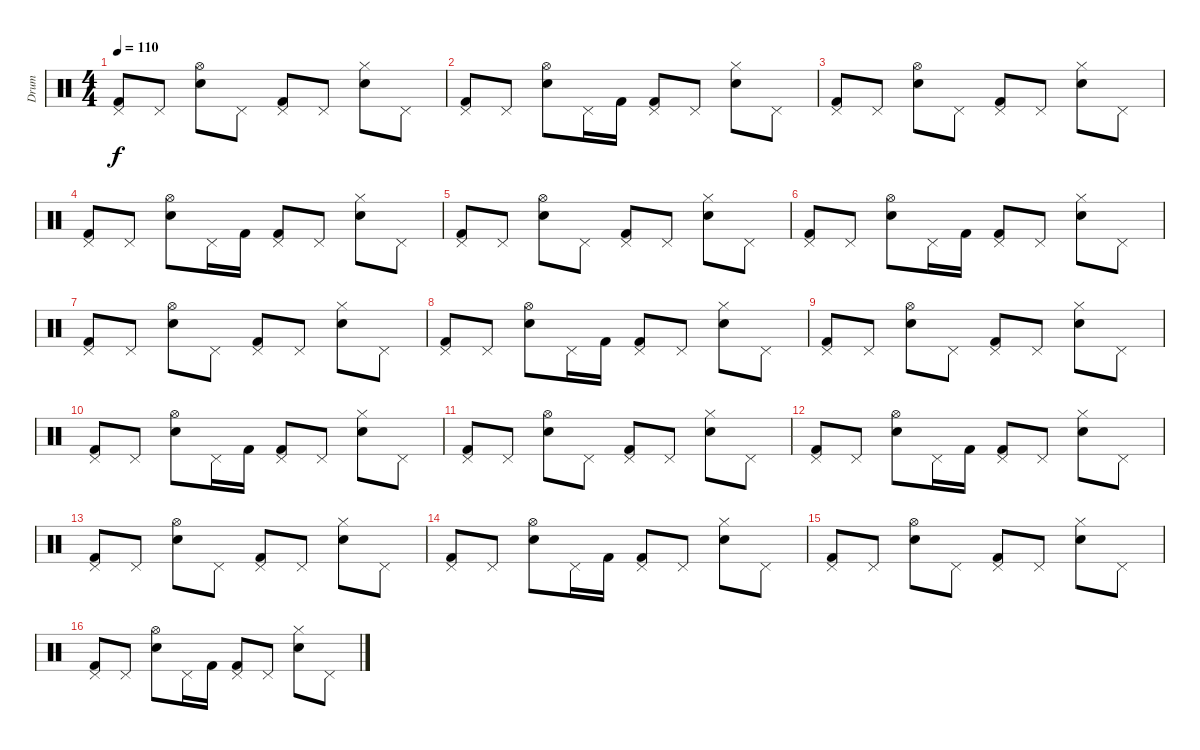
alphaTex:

\track ("Drum" "Drum") {instrument percussion}
\staff {score}
\articulation defaults
\ts (4 4)
\tempo 110
\clef neutral
\ks c
("Pedal Hi-Hat (hit)" "Kick (hit) 2").8{dy f} "Pedal Hi-Hat (hit)".8 ("Hi-Hat (open)" "Snare (hit) 2").8 "Pedal Hi-Hat (hit)".8 ("Pedal Hi-Hat (hit)" "Kick (hit) 2").8 "Pedal Hi-Hat (hit)".8 ("Hi-Hat (closed)" "Snare (hit) 2").8 "Pedal Hi-Hat (hit)".8 |
("Pedal Hi-Hat (hit)" "Kick (hit) 2").8 "Pedal Hi-Hat (hit)".8 ("Hi-Hat (open)" "Snare (hit) 2").8 "Pedal Hi-Hat (hit)".16 "Kick (hit) 2".16 ("Pedal Hi-Hat (hit)" "Kick (hit) 2").8 "Pedal Hi-Hat (hit)".8 ("Hi-Hat (closed)" "Snare (hit) 2").8 "Pedal Hi-Hat (hit)".8 |
("Pedal Hi-Hat (hit)" "Kick (hit) 2").8 "Pedal Hi-Hat (hit)".8 ("Hi-Hat (open)" "Snare (hit) 2").8 "Pedal Hi-Hat (hit)".8 ("Pedal Hi-Hat (hit)" "Kick (hit) 2").8 "Pedal Hi-Hat (hit)".8 ("Hi-Hat (closed)" "Snare (hit) 2").8 "Pedal Hi-Hat (hit)".8 |
("Pedal Hi-Hat (hit)" "Kick (hit) 2").8 "Pedal Hi-Hat (hit)".8 ("Hi-Hat (open)" "Snare (hit) 2").8 "Pedal Hi-Hat (hit)".16 "Kick (hit) 2".16 ("Pedal Hi-Hat (hit)" "Kick (hit) 2").8 "Pedal Hi-Hat (hit)".8 ("Hi-Hat (closed)" "Snare (hit) 2").8 "Pedal Hi-Hat (hit)".8 |
("Pedal Hi-Hat (hit)" "Kick (hit) 2").8 "Pedal Hi-Hat (hit)".8 ("Hi-Hat (open)" "Snare (hit) 2").8 "Pedal Hi-Hat (hit)".8 ("Pedal Hi-Hat (hit)" "Kick (hit) 2").8 "Pedal Hi-Hat (hit)".8 ("Hi-Hat (closed)" "Snare (hit) 2").8 "Pedal Hi-Hat (hit)".8 |
("Pedal Hi-Hat (hit)" "Kick (hit) 2").8 "Pedal Hi-Hat (hit)".8 ("Hi-Hat (open)" "Snare (hit) 2").8 "Pedal Hi-Hat (hit)".16 "Kick (hit) 2".16 ("Pedal Hi-Hat (hit)" "Kick (hit) 2").8 "Pedal Hi-Hat (hit)".8 ("Hi-Hat (closed)" "Snare (hit) 2").8 "Pedal Hi-Hat (hit)".8 |
("Pedal Hi-Hat (hit)" "Kick (hit) 2").8 "Pedal Hi-Hat (hit)".8 ("Hi-Hat (open)" "Snare (hit) 2").8 "Pedal Hi-Hat (hit)".8 ("Pedal Hi-Hat (hit)" "Kick (hit) 2").8 "Pedal Hi-Hat (hit)".8 ("Hi-Hat (closed)" "Snare (hit) 2").8 "Pedal Hi-Hat (hit)".8 |
("Pedal Hi-Hat (hit)" "Kick (hit) 2").8 "Pedal Hi-Hat (hit)".8 ("Hi-Hat (open)" "Snare (hit) 2").8 "Pedal Hi-Hat (hit)".16 "Kick (hit) 2".16 ("Pedal Hi-Hat (hit)" "Kick (hit) 2").8 "Pedal Hi-Hat (hit)".8 ("Hi-Hat (closed)" "Snare (hit) 2").8 "Pedal Hi-Hat (hit)".8 |
("Pedal Hi-Hat (hit)" "Kick (hit) 2").8 "Pedal Hi-Hat (hit)".8 ("Hi-Hat (open)" "Snare (hit) 2").8 "Pedal Hi-Hat (hit)".8 ("Pedal Hi-Hat (hit)" "Kick (hit) 2").8 "Pedal Hi-Hat (hit)".8 ("Hi-Hat (closed)" "Snare (hit) 2").8 "Pedal Hi-Hat (hit)".8 |
("Pedal Hi-Hat (hit)" "Kick (hit) 2").8 "Pedal Hi-Hat (hit)".8 ("Hi-Hat (open)" "Snare (hit) 2").8 "Pedal Hi-Hat (hit)".16 "Kick (hit) 2".16 ("Pedal Hi-Hat (hit)" "Kick (hit) 2").8 "Pedal Hi-Hat (hit)".8 ("Hi-Hat (closed)" "Snare (hit) 2").8 "Pedal Hi-Hat (hit)".8 |
("Pedal Hi-Hat (hit)" "Kick (hit) 2").8 "Pedal Hi-Hat (hit)".8 ("Hi-Hat (open)" "Snare (hit) 2").8 "Pedal Hi-Hat (hit)".8 ("Pedal Hi-Hat (hit)" "Kick (hit) 2").8 "Pedal Hi-Hat (hit)".8 ("Hi-Hat (closed)" "Snare (hit) 2").8 "Pedal Hi-Hat (hit)".8 |
("Pedal Hi-Hat (hit)" "Kick (hit) 2").8 "Pedal Hi-Hat (hit)".8 ("Hi-Hat (open)" "Snare (hit) 2").8 "Pedal Hi-Hat (hit)".16 "Kick (hit) 2".16 ("Pedal Hi-Hat (hit)" "Kick (hit) 2").8 "Pedal Hi-Hat (hit)".8 ("Hi-Hat (closed)" "Snare (hit) 2").8 "Pedal Hi-Hat (hit)".8 |
("Pedal Hi-Hat (hit)" "Kick (hit) 2").8 "Pedal Hi-Hat (hit)".8 ("Hi-Hat (open)" "Snare (hit) 2").8 "Pedal Hi-Hat (hit)".8 ("Pedal Hi-Hat (hit)" "Kick (hit) 2").8 "Pedal Hi-Hat (hit)".8 ("Hi-Hat (closed)" "Snare (hit) 2").8 "Pedal Hi-Hat (hit)".8 |
("Pedal Hi-Hat (hit)" "Kick (hit) 2").8 "Pedal Hi-Hat (hit)".8 ("Hi-Hat (open)" "Snare (hit) 2").8 "Pedal Hi-Hat (hit)".16 "Kick (hit) 2".16 ("Pedal Hi-Hat (hit)" "Kick (hit) 2").8 "Pedal Hi-Hat (hit)".8 ("Hi-Hat (closed)" "Snare (hit) 2").8 "Pedal Hi-Hat (hit)".8 |
("Pedal Hi-Hat (hit)" "Kick (hit) 2").8 "Pedal Hi-Hat (hit)".8 ("Hi-Hat (open)" "Snare (hit) 2").8 "Pedal Hi-Hat (hit)".8 ("Pedal Hi-Hat (hit)" "Kick (hit) 2").8 "Pedal Hi-Hat (hit)".8 ("Hi-Hat (closed)" "Snare (hit) 2").8 "Pedal Hi-Hat (hit)".8 |
("Pedal Hi-Hat (hit)" "Kick (hit) 2").8 "Pedal Hi-Hat (hit)".8 ("Hi-Hat (open)" "Snare (hit) 2").8 "Pedal Hi-Hat (hit)".16 "Kick (hit) 2".16 ("Pedal Hi-Hat (hit)" "Kick (hit) 2").8 "Pedal Hi-Hat (hit)".8 ("Hi-Hat (closed)" "Snare (hit) 2").8 "Pedal Hi-Hat (hit)".8
